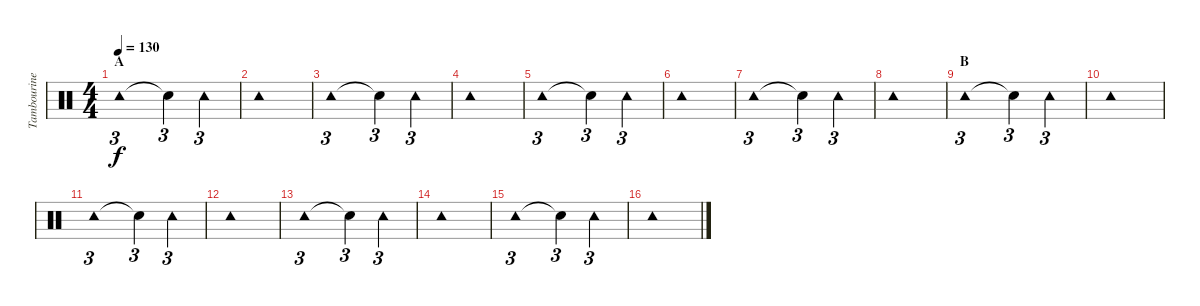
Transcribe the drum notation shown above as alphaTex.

\track ("Tambourine" "Tambourine") {instrument percussion}
\staff {score}
\articulation defaults
\ts (4 4)
\section ("" "A")
\tempo 130
\clef neutral
\ks c "Tambourine (hit)".1{tu (3 2) dy f} "Snare (hit)"{t}.4{tu (3 2)} "Tambourine (hit)".4{tu (3 2)}
|
"Tambourine (hit)".1 |
"Tambourine (hit)".1{tu (3 2)} "Snare (hit)"{t}.4{tu (3 2)} "Tambourine (hit)".4{tu (3 2)} |
"Tambourine (hit)".1 |
"Tambourine (hit)".1{tu (3 2)} "Snare (hit)"{t}.4{tu (3 2)} "Tambourine (hit)".4{tu (3 2)} |
"Tambourine (hit)".1 |
"Tambourine (hit)".1{tu (3 2)} "Snare (hit)"{t}.4{tu (3 2)} "Tambourine (hit)".4{tu (3 2)} |
"Tambourine (hit)".1 |
\section ("" "B")
"Tambourine (hit)".1{tu (3 2)} "Snare (hit)"{t}.4{tu (3 2)} "Tambourine (hit)".4{tu (3 2)} |
"Tambourine (hit)".1 |
"Tambourine (hit)".1{tu (3 2)} "Snare (hit)"{t}.4{tu (3 2)} "Tambourine (hit)".4{tu (3 2)} |
"Tambourine (hit)".1 |
"Tambourine (hit)".1{tu (3 2)} "Snare (hit)"{t}.4{tu (3 2)} "Tambourine (hit)".4{tu (3 2)} |
"Tambourine (hit)".1 |
"Tambourine (hit)".1{tu (3 2)} "Snare (hit)"{t}.4{tu (3 2)} "Tambourine (hit)".4{tu (3 2)} |
"Tambourine (hit)".1
